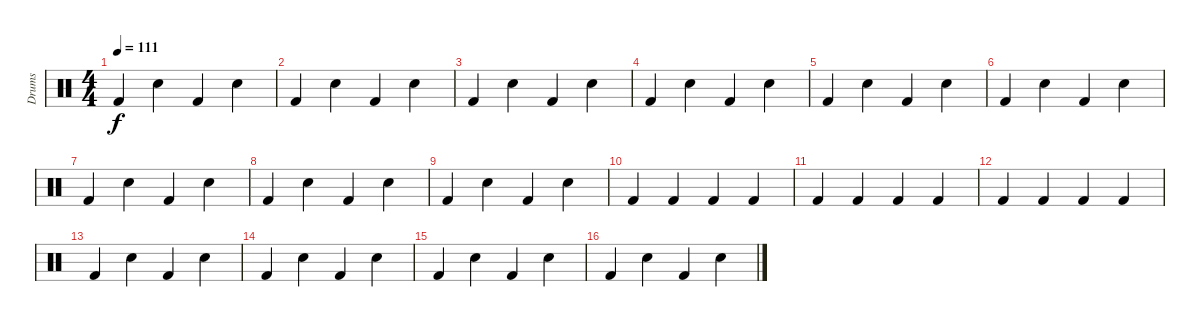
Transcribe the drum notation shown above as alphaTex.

\track ("Drums" "Drums") {instrument percussion}
\staff {score}
\articulation defaults
\ts (4 4)
\tempo 111
\clef neutral
\ks c "Kick (hit) 2".4{dy f} "Electric Snare (hit)".4 "Kick (hit) 2".4 "Electric Snare (hit)".4
|
"Kick (hit) 2".4 "Electric Snare (hit)".4 "Kick (hit) 2".4 "Electric Snare (hit)".4 |
"Kick (hit) 2".4 "Electric Snare (hit)".4 "Kick (hit) 2".4 "Electric Snare (hit)".4 |
"Kick (hit) 2".4 "Electric Snare (hit)".4 "Kick (hit) 2".4 "Electric Snare (hit)".4 |
"Kick (hit) 2".4 "Electric Snare (hit)".4 "Kick (hit) 2".4 "Electric Snare (hit)".4 |
"Kick (hit) 2".4 "Electric Snare (hit)".4 "Kick (hit) 2".4 "Electric Snare (hit)".4 |
"Kick (hit) 2".4 "Electric Snare (hit)".4 "Kick (hit) 2".4 "Electric Snare (hit)".4 |
"Kick (hit) 2".4 "Electric Snare (hit)".4 "Kick (hit) 2".4 "Electric Snare (hit)".4 |
"Kick (hit) 2".4 "Electric Snare (hit)".4 "Kick (hit) 2".4 "Electric Snare (hit)".4 |
"Kick (hit) 2".4 "Kick (hit) 2".4 "Kick (hit) 2".4 "Kick (hit) 2".4 |
"Kick (hit) 2".4 "Kick (hit) 2".4 "Kick (hit) 2".4 "Kick (hit) 2".4 |
"Kick (hit) 2".4 "Kick (hit) 2".4 "Kick (hit) 2".4 "Kick (hit) 2".4 |
"Kick (hit) 2".4 "Electric Snare (hit)".4 "Kick (hit) 2".4 "Electric Snare (hit)".4 |
"Kick (hit) 2".4 "Electric Snare (hit)".4 "Kick (hit) 2".4 "Electric Snare (hit)".4 |
"Kick (hit) 2".4 "Electric Snare (hit)".4 "Kick (hit) 2".4 "Electric Snare (hit)".4 |
"Kick (hit) 2".4 "Electric Snare (hit)".4 "Kick (hit) 2".4 "Electric Snare (hit)".4
